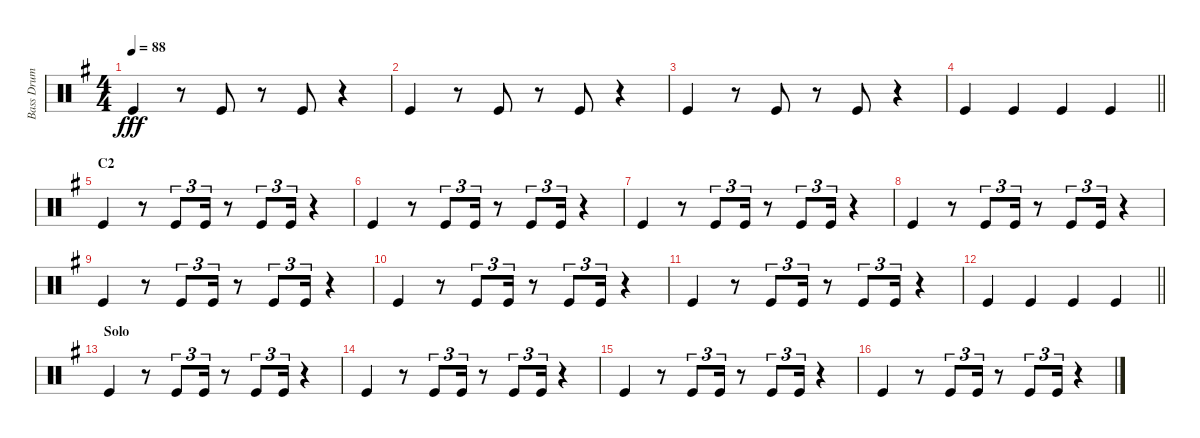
\track ("Bass Drum" "Bass Drum") {instrument percussion}
\staff {score}
\articulation defaults
\ts (4 4)
\tempo 88
\clef neutral
\ks g "Kick (hit)".4{dy fff}
r.8 "Kick (hit)".8 r.8 "Kick (hit)".8 r.4 |
"Kick (hit)".4 r.8 "Kick (hit)".8 r.8 "Kick (hit)".8 r.4 |
"Kick (hit)".4 r.8 "Kick (hit)".8 r.8 "Kick (hit)".8 r.4 |
\barLineRight lightlight "Kick (hit)".4 "Kick (hit)".4 "Kick (hit)".4 "Kick (hit)".4
|
\section ("" "C2")
"Kick (hit)".4 r.8 "Kick (hit)".8{tu (3 2)} "Kick (hit)".16{tu (3 2)} r.8 "Kick (hit)".8{tu (3 2)} "Kick (hit)".16{tu (3 2)} r.4 |
"Kick (hit)".4 r.8 "Kick (hit)".8{tu (3 2)} "Kick (hit)".16{tu (3 2)} r.8 "Kick (hit)".8{tu (3 2)} "Kick (hit)".16{tu (3 2)} r.4 |
"Kick (hit)".4 r.8 "Kick (hit)".8{tu (3 2)} "Kick (hit)".16{tu (3 2)} r.8 "Kick (hit)".8{tu (3 2)} "Kick (hit)".16{tu (3 2)} r.4 |
"Kick (hit)".4 r.8 "Kick (hit)".8{tu (3 2)} "Kick (hit)".16{tu (3 2)} r.8 "Kick (hit)".8{tu (3 2)} "Kick (hit)".16{tu (3 2)} r.4 |
"Kick (hit)".4 r.8 "Kick (hit)".8{tu (3 2)} "Kick (hit)".16{tu (3 2)} r.8 "Kick (hit)".8{tu (3 2)} "Kick (hit)".16{tu (3 2)} r.4 |
"Kick (hit)".4 r.8 "Kick (hit)".8{tu (3 2)} "Kick (hit)".16{tu (3 2)} r.8 "Kick (hit)".8{tu (3 2)} "Kick (hit)".16{tu (3 2)} r.4 |
"Kick (hit)".4 r.8 "Kick (hit)".8{tu (3 2)} "Kick (hit)".16{tu (3 2)} r.8 "Kick (hit)".8{tu (3 2)} "Kick (hit)".16{tu (3 2)} r.4 |
\barLineRight lightlight "Kick (hit)".4 "Kick (hit)".4 "Kick (hit)".4 "Kick (hit)".4
|
\section ("" "Solo")
"Kick (hit)".4 r.8 "Kick (hit)".8{tu (3 2)} "Kick (hit)".16{tu (3 2)} r.8 "Kick (hit)".8{tu (3 2)} "Kick (hit)".16{tu (3 2)} r.4 |
"Kick (hit)".4 r.8 "Kick (hit)".8{tu (3 2)} "Kick (hit)".16{tu (3 2)} r.8 "Kick (hit)".8{tu (3 2)} "Kick (hit)".16{tu (3 2)} r.4 |
"Kick (hit)".4 r.8 "Kick (hit)".8{tu (3 2)} "Kick (hit)".16{tu (3 2)} r.8 "Kick (hit)".8{tu (3 2)} "Kick (hit)".16{tu (3 2)} r.4 |
"Kick (hit)".4 r.8 "Kick (hit)".8{tu (3 2)} "Kick (hit)".16{tu (3 2)} r.8 "Kick (hit)".8{tu (3 2)} "Kick (hit)".16{tu (3 2)} r.4
